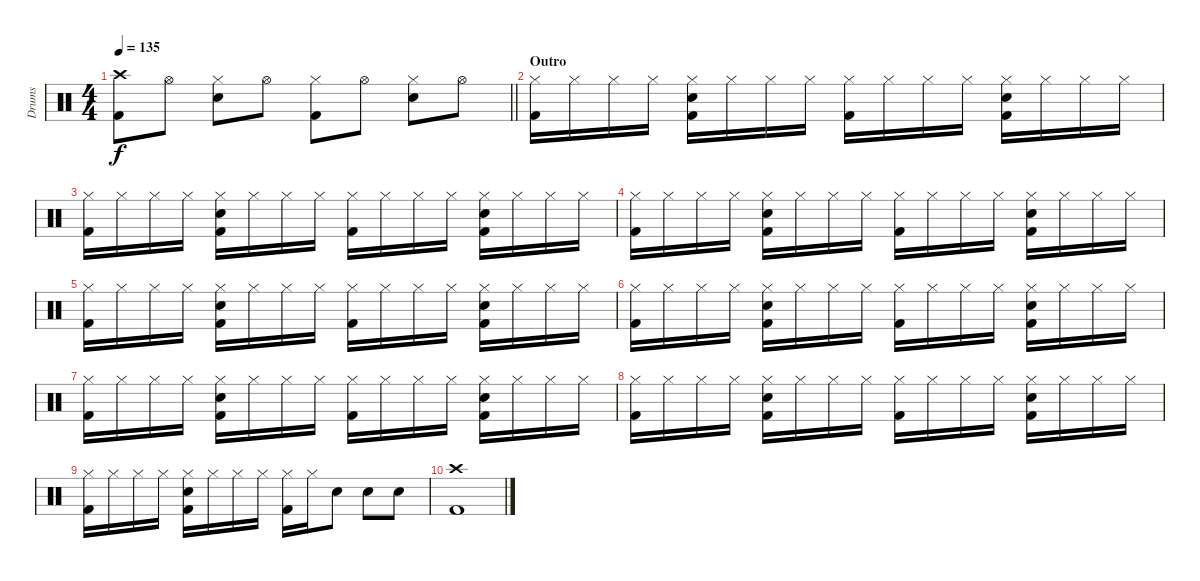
\track ("Drums" "Drums") {instrument percussion}
\staff {score}
\articulation defaults
\ts (4 4)
\tempo 135
\clef neutral
\barLineRight lightlight
\ks c
("Crash high (hit)" "Kick (hit) 2").8{dy f} "Hi-Hat (open)".8 ("Hi-Hat (closed)" "Electric Snare (hit)").8 "Hi-Hat (open)".8 ("Hi-Hat (closed)" "Kick (hit) 2").8 "Hi-Hat (open)".8 ("Hi-Hat (closed)" "Electric Snare (hit)").8 "Hi-Hat (open)".8 |
\section ("" "Outro")
("Hi-Hat (closed)" "Kick (hit) 2").16 "Hi-Hat (closed)".16 "Hi-Hat (closed)".16 "Hi-Hat (closed)".16 ("Hi-Hat (closed)" "Electric Snare (hit)" "Kick (hit) 2").16 "Hi-Hat (closed)".16 "Hi-Hat (closed)".16 "Hi-Hat (closed)".16 ("Hi-Hat (closed)" "Kick (hit) 2").16 "Hi-Hat (closed)".16 "Hi-Hat (closed)".16 "Hi-Hat (closed)".16 ("Hi-Hat (closed)" "Electric Snare (hit)" "Kick (hit) 2").16 "Hi-Hat (closed)".16 "Hi-Hat (closed)".16 "Hi-Hat (closed)".16 |
("Hi-Hat (closed)" "Kick (hit) 2").16 "Hi-Hat (closed)".16 "Hi-Hat (closed)".16 "Hi-Hat (closed)".16 ("Hi-Hat (closed)" "Electric Snare (hit)" "Kick (hit) 2").16 "Hi-Hat (closed)".16 "Hi-Hat (closed)".16 "Hi-Hat (closed)".16 ("Hi-Hat (closed)" "Kick (hit) 2").16 "Hi-Hat (closed)".16 "Hi-Hat (closed)".16 "Hi-Hat (closed)".16 ("Hi-Hat (closed)" "Electric Snare (hit)" "Kick (hit) 2").16 "Hi-Hat (closed)".16 "Hi-Hat (closed)".16 "Hi-Hat (closed)".16 |
("Hi-Hat (closed)" "Kick (hit) 2").16 "Hi-Hat (closed)".16 "Hi-Hat (closed)".16 "Hi-Hat (closed)".16 ("Hi-Hat (closed)" "Electric Snare (hit)" "Kick (hit) 2").16 "Hi-Hat (closed)".16 "Hi-Hat (closed)".16 "Hi-Hat (closed)".16 ("Hi-Hat (closed)" "Kick (hit) 2").16 "Hi-Hat (closed)".16 "Hi-Hat (closed)".16 "Hi-Hat (closed)".16 ("Hi-Hat (closed)" "Electric Snare (hit)" "Kick (hit) 2").16 "Hi-Hat (closed)".16 "Hi-Hat (closed)".16 "Hi-Hat (closed)".16 |
("Hi-Hat (closed)" "Kick (hit) 2").16 "Hi-Hat (closed)".16 "Hi-Hat (closed)".16 "Hi-Hat (closed)".16 ("Hi-Hat (closed)" "Electric Snare (hit)" "Kick (hit) 2").16 "Hi-Hat (closed)".16 "Hi-Hat (closed)".16 "Hi-Hat (closed)".16 ("Hi-Hat (closed)" "Kick (hit) 2").16 "Hi-Hat (closed)".16 "Hi-Hat (closed)".16 "Hi-Hat (closed)".16 ("Hi-Hat (closed)" "Electric Snare (hit)" "Kick (hit) 2").16 "Hi-Hat (closed)".16 "Hi-Hat (closed)".16 "Hi-Hat (closed)".16 |
("Hi-Hat (closed)" "Kick (hit) 2").16 "Hi-Hat (closed)".16 "Hi-Hat (closed)".16 "Hi-Hat (closed)".16 ("Hi-Hat (closed)" "Electric Snare (hit)" "Kick (hit) 2").16 "Hi-Hat (closed)".16 "Hi-Hat (closed)".16 "Hi-Hat (closed)".16 ("Hi-Hat (closed)" "Kick (hit) 2").16 "Hi-Hat (closed)".16 "Hi-Hat (closed)".16 "Hi-Hat (closed)".16 ("Hi-Hat (closed)" "Electric Snare (hit)" "Kick (hit) 2").16 "Hi-Hat (closed)".16 "Hi-Hat (closed)".16 "Hi-Hat (closed)".16 |
("Hi-Hat (closed)" "Kick (hit) 2").16 "Hi-Hat (closed)".16 "Hi-Hat (closed)".16 "Hi-Hat (closed)".16 ("Hi-Hat (closed)" "Electric Snare (hit)" "Kick (hit) 2").16 "Hi-Hat (closed)".16 "Hi-Hat (closed)".16 "Hi-Hat (closed)".16 ("Hi-Hat (closed)" "Kick (hit) 2").16 "Hi-Hat (closed)".16 "Hi-Hat (closed)".16 "Hi-Hat (closed)".16 ("Hi-Hat (closed)" "Electric Snare (hit)" "Kick (hit) 2").16 "Hi-Hat (closed)".16 "Hi-Hat (closed)".16 "Hi-Hat (closed)".16 |
("Hi-Hat (closed)" "Kick (hit) 2").16 "Hi-Hat (closed)".16 "Hi-Hat (closed)".16 "Hi-Hat (closed)".16 ("Hi-Hat (closed)" "Electric Snare (hit)" "Kick (hit) 2").16 "Hi-Hat (closed)".16 "Hi-Hat (closed)".16 "Hi-Hat (closed)".16 ("Hi-Hat (closed)" "Kick (hit) 2").16 "Hi-Hat (closed)".16 "Hi-Hat (closed)".16 "Hi-Hat (closed)".16 ("Hi-Hat (closed)" "Electric Snare (hit)" "Kick (hit) 2").16 "Hi-Hat (closed)".16 "Hi-Hat (closed)".16 "Hi-Hat (closed)".16 |
("Hi-Hat (closed)" "Kick (hit) 2").16 "Hi-Hat (closed)".16 "Hi-Hat (closed)".16 "Hi-Hat (closed)".16 ("Hi-Hat (closed)" "Electric Snare (hit)" "Kick (hit) 2").16 "Hi-Hat (closed)".16 "Hi-Hat (closed)".16 "Hi-Hat (closed)".16 ("Hi-Hat (closed)" "Kick (hit) 2").16 "Hi-Hat (closed)".16 "Electric Snare (hit)".8 "Electric Snare (hit)".8 "Electric Snare (hit)".8 |
("Crash high (hit)" "Kick (hit) 2").1
